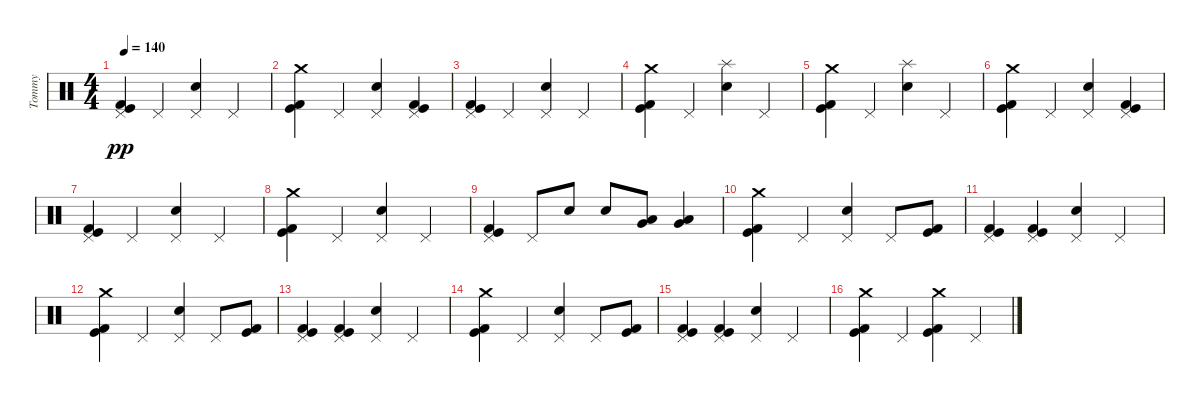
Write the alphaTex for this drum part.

\track ("Tommy" "Tommy") {instrument percussion}
\staff {score}
\articulation defaults
\ts (4 4)
\tempo 140
\clef neutral
\ks c
("Pedal Hi-Hat (hit)" "Kick (hit) 2" "Kick (hit)").4{dy pp} "Pedal Hi-Hat (hit)".4 ("Pedal Hi-Hat (hit)" "Snare (hit) 2").4 "Pedal Hi-Hat (hit)".4 |
("Kick (hit) 2" "Kick (hit)" "Crash medium (hit)").4 "Pedal Hi-Hat (hit)".4 ("Pedal Hi-Hat (hit)" "Snare (hit) 2").4 ("Kick (hit)" "Kick (hit) 2" "Pedal Hi-Hat (hit)").4 |
("Pedal Hi-Hat (hit)" "Kick (hit) 2" "Kick (hit)").4 "Pedal Hi-Hat (hit)".4 ("Pedal Hi-Hat (hit)" "Snare (hit) 2").4 "Pedal Hi-Hat (hit)".4 |
("Kick (hit) 2" "Kick (hit)" "Crash medium (hit)").4 "Pedal Hi-Hat (hit)".4 ("Splash (hit)" "Snare (hit) 2").4 "Pedal Hi-Hat (hit)".4 |
("Crash medium (hit)" "Kick (hit) 2" "Kick (hit)").4 "Pedal Hi-Hat (hit)".4 ("Splash (hit)" "Snare (hit) 2").4 "Pedal Hi-Hat (hit)".4 |
("Kick (hit) 2" "Kick (hit)" "Crash medium (hit)").4 "Pedal Hi-Hat (hit)".4 ("Pedal Hi-Hat (hit)" "Snare (hit) 2").4 ("Kick (hit)" "Kick (hit) 2" "Pedal Hi-Hat (hit)").4 |
("Pedal Hi-Hat (hit)" "Kick (hit) 2" "Kick (hit)").4 "Pedal Hi-Hat (hit)".4 ("Pedal Hi-Hat (hit)" "Snare (hit) 2").4 "Pedal Hi-Hat (hit)".4 |
("Kick (hit) 2" "Kick (hit)" "Crash medium (hit)").4 "Pedal Hi-Hat (hit)".4 ("Pedal Hi-Hat (hit)" "Snare (hit) 2").4 "Pedal Hi-Hat (hit)".4 |
("Pedal Hi-Hat (hit)" "Kick (hit) 2" "Kick (hit)").4 "Pedal Hi-Hat (hit)".8 "Snare (hit) 2".8 "Snare (hit) 2".8 ("Very Low Tom (hit)" "Low Tom (hit)").8 ("Very Low Tom (hit)" "Low Tom (hit)").4 |
("Kick (hit)" "Crash medium (hit)" "Kick (hit) 2").4 "Pedal Hi-Hat (hit)".4 ("Pedal Hi-Hat (hit)" "Snare (hit) 2").4 "Pedal Hi-Hat (hit)".8 ("Kick (hit)" "Kick (hit) 2").8 |
("Pedal Hi-Hat (hit)" "Kick (hit)" "Kick (hit) 2").4 ("Pedal Hi-Hat (hit)" "Kick (hit)" "Kick (hit) 2").4 ("Snare (hit) 2" "Pedal Hi-Hat (hit)").4 "Pedal Hi-Hat (hit)".4 |
("Kick (hit)" "Crash medium (hit)" "Kick (hit) 2").4 "Pedal Hi-Hat (hit)".4 ("Pedal Hi-Hat (hit)" "Snare (hit) 2").4 "Pedal Hi-Hat (hit)".8 ("Kick (hit)" "Kick (hit) 2").8 |
("Pedal Hi-Hat (hit)" "Kick (hit)" "Kick (hit) 2").4 ("Pedal Hi-Hat (hit)" "Kick (hit)" "Kick (hit) 2").4 ("Snare (hit) 2" "Pedal Hi-Hat (hit)").4 "Pedal Hi-Hat (hit)".4 |
("Kick (hit)" "Crash medium (hit)" "Kick (hit) 2").4 "Pedal Hi-Hat (hit)".4 ("Pedal Hi-Hat (hit)" "Snare (hit) 2").4 "Pedal Hi-Hat (hit)".8 ("Kick (hit)" "Kick (hit) 2").8 |
("Pedal Hi-Hat (hit)" "Kick (hit)" "Kick (hit) 2").4 ("Pedal Hi-Hat (hit)" "Kick (hit)" "Kick (hit) 2").4 ("Snare (hit) 2" "Pedal Hi-Hat (hit)").4 "Pedal Hi-Hat (hit)".4 |
("Crash medium (hit)" "Kick (hit)" "Kick (hit) 2").4 "Pedal Hi-Hat (hit)".4 ("Crash medium (hit)" "Kick (hit) 2" "Kick (hit)").4 "Pedal Hi-Hat (hit)".4
